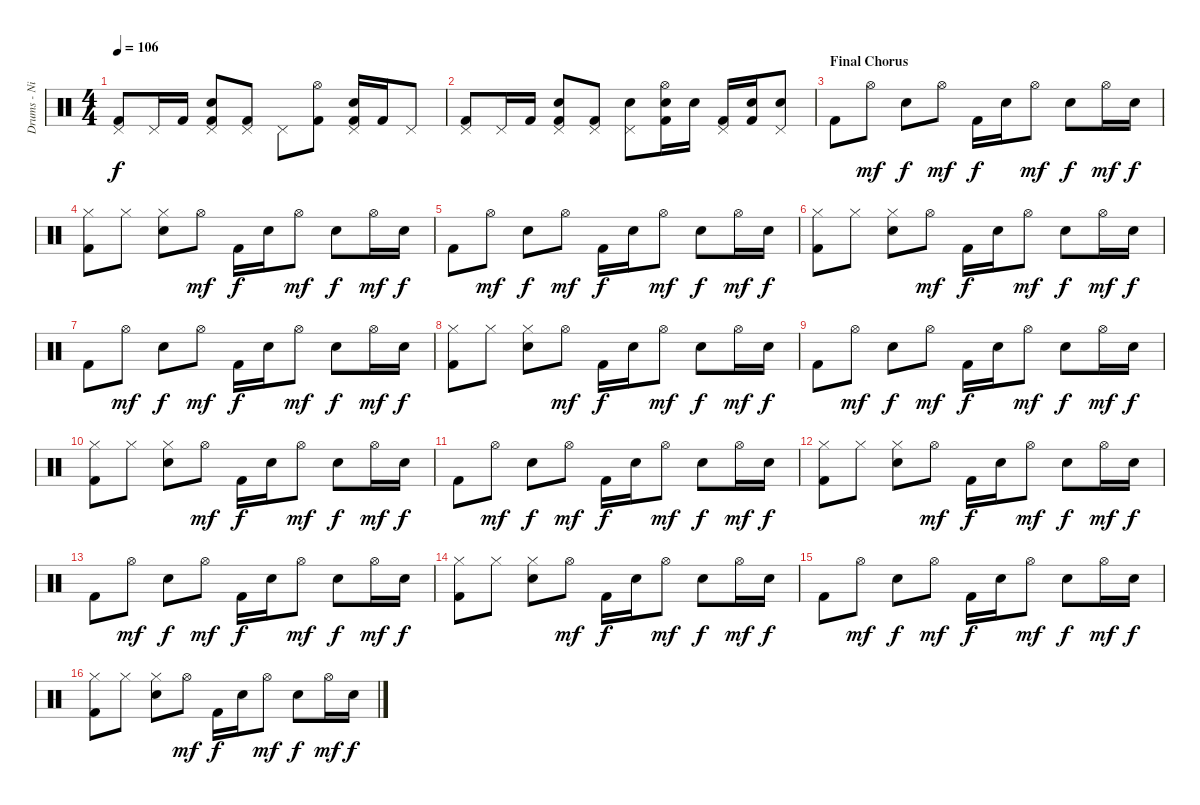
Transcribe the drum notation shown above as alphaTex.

\track ("Drums - Nick Van Gelder" "Drums - Ni") {instrument percussion}
\staff {score}
\articulation defaults
\ts (4 4)
\tempo 106
\clef neutral
\ks c
("Pedal Hi-Hat (hit)" "Kick (hit) 2").8{dy f} "Pedal Hi-Hat (hit)".16 "Kick (hit) 2".16 ("Pedal Hi-Hat (hit)" "Electric Snare (hit)" "Kick (hit) 2").8 ("Pedal Hi-Hat (hit)" "Kick (hit) 2").8 "Pedal Hi-Hat (hit)".8 ("Hi-Hat (open)" "Kick (hit) 2").8 ("Pedal Hi-Hat (hit)" "Electric Snare (hit)" "Kick (hit) 2").16 "Kick (hit) 2".16 "Pedal Hi-Hat (hit)".8 |
("Pedal Hi-Hat (hit)" "Kick (hit) 2").8 "Pedal Hi-Hat (hit)".16 "Kick (hit) 2".16 ("Pedal Hi-Hat (hit)" "Electric Snare (hit)" "Kick (hit) 2").8 ("Pedal Hi-Hat (hit)" "Kick (hit) 2").8 ("Pedal Hi-Hat (hit)" "Electric Snare (hit)").8 ("Hi-Hat (open)" "Electric Snare (hit)" "Kick (hit) 2").16 "Electric Snare (hit)".16 ("Pedal Hi-Hat (hit)" "Kick (hit) 2").16 ("Electric Snare (hit)" "Kick (hit) 2").16 ("Pedal Hi-Hat (hit)" "Electric Snare (hit)").8 |
\section ("" "Final Chorus")
"Kick (hit) 2".8 "Hi-Hat (open)".8{dy mf} "Electric Snare (hit)".8{dy f} "Hi-Hat (open)".8{dy mf} "Kick (hit) 2".16{dy f} "Electric Snare (hit)".16 "Hi-Hat (open)".8{dy mf} "Electric Snare (hit)".8{dy f} "Hi-Hat (open)".16{dy mf} "Electric Snare (hit)".16{dy f} |
("Hi-Hat (closed)" "Kick (hit) 2").8 "Hi-Hat (closed)".8 ("Hi-Hat (closed)" "Electric Snare (hit)").8 "Hi-Hat (open)".8{dy mf} "Kick (hit) 2".16{dy f} "Electric Snare (hit)".16 "Hi-Hat (open)".8{dy mf} "Electric Snare (hit)".8{dy f} "Hi-Hat (open)".16{dy mf} "Electric Snare (hit)".16{dy f} |
"Kick (hit) 2".8 "Hi-Hat (open)".8{dy mf} "Electric Snare (hit)".8{dy f} "Hi-Hat (open)".8{dy mf} "Kick (hit) 2".16{dy f} "Electric Snare (hit)".16 "Hi-Hat (open)".8{dy mf} "Electric Snare (hit)".8{dy f} "Hi-Hat (open)".16{dy mf} "Electric Snare (hit)".16{dy f} |
("Hi-Hat (closed)" "Kick (hit) 2").8 "Hi-Hat (closed)".8 ("Hi-Hat (closed)" "Electric Snare (hit)").8 "Hi-Hat (open)".8{dy mf} "Kick (hit) 2".16{dy f} "Electric Snare (hit)".16 "Hi-Hat (open)".8{dy mf} "Electric Snare (hit)".8{dy f} "Hi-Hat (open)".16{dy mf} "Electric Snare (hit)".16{dy f} |
"Kick (hit) 2".8 "Hi-Hat (open)".8{dy mf} "Electric Snare (hit)".8{dy f} "Hi-Hat (open)".8{dy mf} "Kick (hit) 2".16{dy f} "Electric Snare (hit)".16 "Hi-Hat (open)".8{dy mf} "Electric Snare (hit)".8{dy f} "Hi-Hat (open)".16{dy mf} "Electric Snare (hit)".16{dy f} |
("Hi-Hat (closed)" "Kick (hit) 2").8 "Hi-Hat (closed)".8 ("Hi-Hat (closed)" "Electric Snare (hit)").8 "Hi-Hat (open)".8{dy mf} "Kick (hit) 2".16{dy f} "Electric Snare (hit)".16 "Hi-Hat (open)".8{dy mf} "Electric Snare (hit)".8{dy f} "Hi-Hat (open)".16{dy mf} "Electric Snare (hit)".16{dy f} |
"Kick (hit) 2".8 "Hi-Hat (open)".8{dy mf} "Electric Snare (hit)".8{dy f} "Hi-Hat (open)".8{dy mf} "Kick (hit) 2".16{dy f} "Electric Snare (hit)".16 "Hi-Hat (open)".8{dy mf} "Electric Snare (hit)".8{dy f} "Hi-Hat (open)".16{dy mf} "Electric Snare (hit)".16{dy f} |
("Hi-Hat (closed)" "Kick (hit) 2").8 "Hi-Hat (closed)".8 ("Hi-Hat (closed)" "Electric Snare (hit)").8 "Hi-Hat (open)".8{dy mf} "Kick (hit) 2".16{dy f} "Electric Snare (hit)".16 "Hi-Hat (open)".8{dy mf} "Electric Snare (hit)".8{dy f} "Hi-Hat (open)".16{dy mf} "Electric Snare (hit)".16{dy f} |
"Kick (hit) 2".8 "Hi-Hat (open)".8{dy mf} "Electric Snare (hit)".8{dy f} "Hi-Hat (open)".8{dy mf} "Kick (hit) 2".16{dy f} "Electric Snare (hit)".16 "Hi-Hat (open)".8{dy mf} "Electric Snare (hit)".8{dy f} "Hi-Hat (open)".16{dy mf} "Electric Snare (hit)".16{dy f} |
("Hi-Hat (closed)" "Kick (hit) 2").8 "Hi-Hat (closed)".8 ("Hi-Hat (closed)" "Electric Snare (hit)").8 "Hi-Hat (open)".8{dy mf} "Kick (hit) 2".16{dy f} "Electric Snare (hit)".16 "Hi-Hat (open)".8{dy mf} "Electric Snare (hit)".8{dy f} "Hi-Hat (open)".16{dy mf} "Electric Snare (hit)".16{dy f} |
"Kick (hit) 2".8 "Hi-Hat (open)".8{dy mf} "Electric Snare (hit)".8{dy f} "Hi-Hat (open)".8{dy mf} "Kick (hit) 2".16{dy f} "Electric Snare (hit)".16 "Hi-Hat (open)".8{dy mf} "Electric Snare (hit)".8{dy f} "Hi-Hat (open)".16{dy mf} "Electric Snare (hit)".16{dy f} |
("Hi-Hat (closed)" "Kick (hit) 2").8 "Hi-Hat (closed)".8 ("Hi-Hat (closed)" "Electric Snare (hit)").8 "Hi-Hat (open)".8{dy mf} "Kick (hit) 2".16{dy f} "Electric Snare (hit)".16 "Hi-Hat (open)".8{dy mf} "Electric Snare (hit)".8{dy f} "Hi-Hat (open)".16{dy mf} "Electric Snare (hit)".16{dy f} |
"Kick (hit) 2".8 "Hi-Hat (open)".8{dy mf} "Electric Snare (hit)".8{dy f} "Hi-Hat (open)".8{dy mf} "Kick (hit) 2".16{dy f} "Electric Snare (hit)".16 "Hi-Hat (open)".8{dy mf} "Electric Snare (hit)".8{dy f} "Hi-Hat (open)".16{dy mf} "Electric Snare (hit)".16{dy f} |
("Hi-Hat (closed)" "Kick (hit) 2").8 "Hi-Hat (closed)".8 ("Hi-Hat (closed)" "Electric Snare (hit)").8 "Hi-Hat (open)".8{dy mf} "Kick (hit) 2".16{dy f} "Electric Snare (hit)".16 "Hi-Hat (open)".8{dy mf} "Electric Snare (hit)".8{dy f} "Hi-Hat (open)".16{dy mf} "Electric Snare (hit)".16{dy f}
